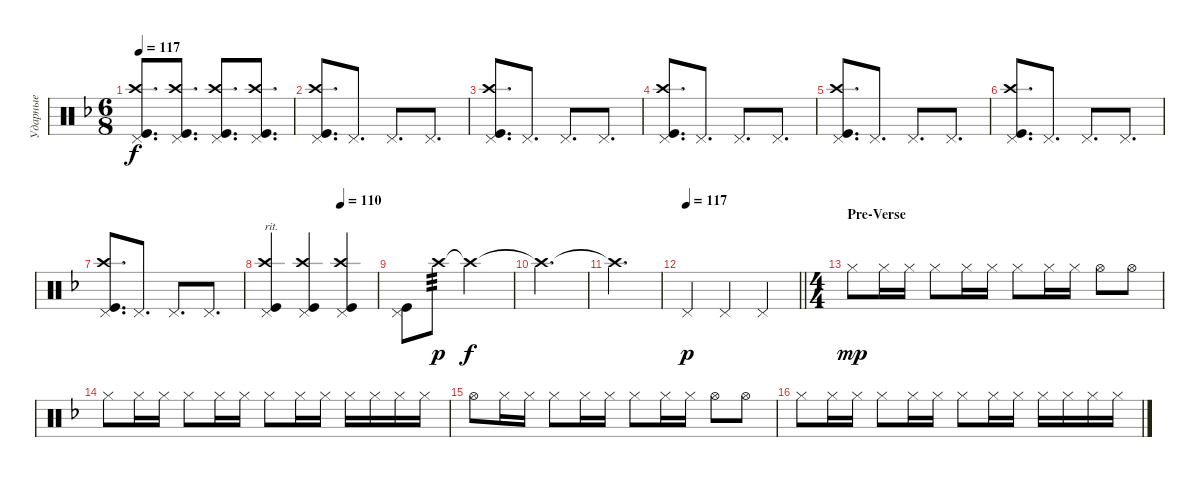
\track ("Ударные" "Ударные") {instrument percussion}
\staff {score}
\articulation defaults
\ts (6 8)
\tempo 117
\clef neutral
\ks dminor
("Kick (hit)" "Crash high (hit)" "Pedal Hi-Hat (hit)").8{d dy f} ("Kick (hit)" "Crash high (hit)" "Pedal Hi-Hat (hit)").8{d} ("Kick (hit)" "Crash high (hit)" "Pedal Hi-Hat (hit)").8{d} ("Kick (hit)" "Crash high (hit)" "Pedal Hi-Hat (hit)").8{d} |
("Kick (hit)" "Crash high (hit)" "Pedal Hi-Hat (hit)").8{d} "Pedal Hi-Hat (hit)".8{d} "Pedal Hi-Hat (hit)".8{d} "Pedal Hi-Hat (hit)".8{d} |
("Kick (hit)" "Crash high (hit)" "Pedal Hi-Hat (hit)").8{d} "Pedal Hi-Hat (hit)".8{d} "Pedal Hi-Hat (hit)".8{d} "Pedal Hi-Hat (hit)".8{d} |
("Kick (hit)" "Crash high (hit)" "Pedal Hi-Hat (hit)").8{d} "Pedal Hi-Hat (hit)".8{d} "Pedal Hi-Hat (hit)".8{d} "Pedal Hi-Hat (hit)".8{d} |
("Kick (hit)" "Crash high (hit)" "Pedal Hi-Hat (hit)").8{d} "Pedal Hi-Hat (hit)".8{d} "Pedal Hi-Hat (hit)".8{d} "Pedal Hi-Hat (hit)".8{d} |
("Kick (hit)" "Crash high (hit)" "Pedal Hi-Hat (hit)").8{d} "Pedal Hi-Hat (hit)".8{d} "Pedal Hi-Hat (hit)".8{d} "Pedal Hi-Hat (hit)".8{d} |
("Kick (hit)" "Crash high (hit)" "Pedal Hi-Hat (hit)").8{d} "Pedal Hi-Hat (hit)".8{d} "Pedal Hi-Hat (hit)".8{d} "Pedal Hi-Hat (hit)".8{d} |
\tempo (110 0.6666666666666666)
("Kick (hit)" "Crash high (hit)" "Pedal Hi-Hat (hit)").4{txt "rit."} ("Kick (hit)" "Crash high (hit)" "Pedal Hi-Hat (hit)").4 ("Kick (hit)" "Crash high (hit)" "Pedal Hi-Hat (hit)").4 |
("Kick (hit)" "Pedal Hi-Hat (hit)").8 "Crash high (hit)".8{tp 3 dy p} "Crash high (hit)"{t}.2{dy f} |
"Crash high (hit)"{t}.2{d} |
"Crash high (hit)"{t}.2{d} |
\tempo 117
\barLineRight lightlight "Pedal Hi-Hat (hit)".4{dy p} "Pedal Hi-Hat (hit)".4 "Pedal Hi-Hat (hit)".4
|
\ts (4 4)
\section ("" "Pre-Verse")
"Hi-Hat (closed)".8{dy mp} "Hi-Hat (closed)".16 "Hi-Hat (closed)".16 "Hi-Hat (closed)".8 "Hi-Hat (closed)".16 "Hi-Hat (closed)".16 "Hi-Hat (closed)".8 "Hi-Hat (closed)".16 "Hi-Hat (closed)".16 "Hi-Hat (open)".8 "Hi-Hat (open)".8 |
"Hi-Hat (closed)".8 "Hi-Hat (closed)".16 "Hi-Hat (closed)".16 "Hi-Hat (closed)".8 "Hi-Hat (closed)".16 "Hi-Hat (closed)".16 "Hi-Hat (closed)".8 "Hi-Hat (closed)".16 "Hi-Hat (closed)".16 "Hi-Hat (closed)".16 "Hi-Hat (closed)".16 "Hi-Hat (closed)".16 "Hi-Hat (closed)".16 |
"Hi-Hat (open)".8 "Hi-Hat (closed)".16 "Hi-Hat (closed)".16 "Hi-Hat (closed)".8 "Hi-Hat (closed)".16 "Hi-Hat (closed)".16 "Hi-Hat (closed)".8 "Hi-Hat (closed)".16 "Hi-Hat (closed)".16 "Hi-Hat (open)".8 "Hi-Hat (open)".8 |
"Hi-Hat (closed)".8 "Hi-Hat (closed)".16 "Hi-Hat (closed)".16 "Hi-Hat (closed)".8 "Hi-Hat (closed)".16 "Hi-Hat (closed)".16 "Hi-Hat (closed)".8 "Hi-Hat (closed)".16 "Hi-Hat (closed)".16 "Hi-Hat (closed)".16 "Hi-Hat (closed)".16 "Hi-Hat (closed)".16 "Hi-Hat (closed)".16
